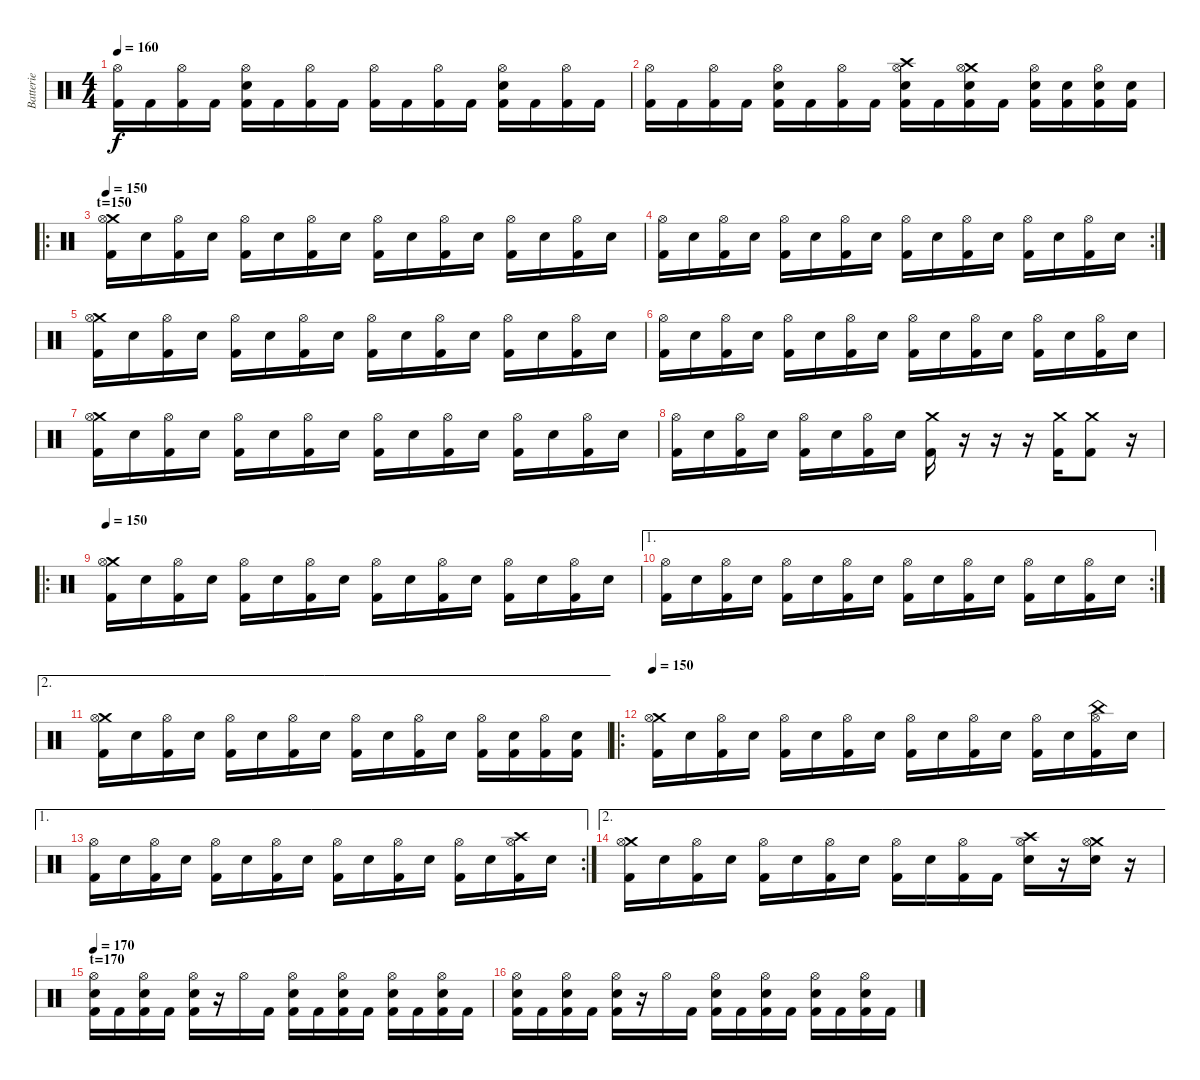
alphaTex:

\track ("Batterie" "Batterie") {instrument percussion}
\staff {score}
\articulation defaults
\ts (4 4)
\tempo 160
\clef neutral
\ks c
("Hi-Hat (open)" "Kick (hit) 2").16{dy f} "Kick (hit) 2".16 ("Hi-Hat (open)" "Kick (hit) 2").16 "Kick (hit) 2".16 ("Hi-Hat (open)" "Electric Snare (hit)" "Kick (hit) 2").16 "Kick (hit) 2".16 ("Hi-Hat (open)" "Kick (hit) 2").16 "Kick (hit) 2".16 ("Hi-Hat (open)" "Kick (hit) 2").16 "Kick (hit) 2".16 ("Hi-Hat (open)" "Kick (hit) 2").16 "Kick (hit) 2".16 ("Hi-Hat (open)" "Electric Snare (hit)" "Kick (hit) 2").16 "Kick (hit) 2".16 ("Hi-Hat (open)" "Kick (hit) 2").16 "Kick (hit) 2".16 |
("Hi-Hat (open)" "Kick (hit) 2").16 "Kick (hit) 2".16 ("Hi-Hat (open)" "Kick (hit) 2").16 "Kick (hit) 2".16 ("Hi-Hat (open)" "Electric Snare (hit)" "Kick (hit) 2").16 "Kick (hit) 2".16 ("Hi-Hat (open)" "Kick (hit) 2").16 "Kick (hit) 2".16 ("Crash high (hit)" "Hi-Hat (open)" "Electric Snare (hit)" "Kick (hit) 2").16 "Kick (hit) 2".16 ("Crash medium (hit)" "Hi-Hat (open)" "Electric Snare (hit)" "Kick (hit) 2").16 "Kick (hit) 2".16 ("Hi-Hat (open)" "Electric Snare (hit)" "Kick (hit) 2").16 ("Electric Snare (hit)" "Kick (hit) 2").16 ("Hi-Hat (open)" "Electric Snare (hit)" "Kick (hit) 2").16 ("Electric Snare (hit)" "Kick (hit) 2").16 |
\ro
\section ("" "t=150")
\tempo 150
("Crash medium (hit)" "Hi-Hat (open)" "Kick (hit) 2").16 "Electric Snare (hit)".16 ("Hi-Hat (open)" "Kick (hit) 2").16 "Electric Snare (hit)".16 ("Hi-Hat (open)" "Kick (hit) 2").16 "Electric Snare (hit)".16 ("Hi-Hat (open)" "Kick (hit) 2").16 "Electric Snare (hit)".16 ("Hi-Hat (open)" "Kick (hit) 2").16 "Electric Snare (hit)".16 ("Hi-Hat (open)" "Kick (hit) 2").16 "Electric Snare (hit)".16 ("Hi-Hat (open)" "Kick (hit) 2").16 "Electric Snare (hit)".16 ("Hi-Hat (open)" "Kick (hit) 2").16 "Electric Snare (hit)".16 |
\rc 2
("Hi-Hat (open)" "Kick (hit) 2").16 "Electric Snare (hit)".16 ("Hi-Hat (open)" "Kick (hit) 2").16 "Electric Snare (hit)".16 ("Hi-Hat (open)" "Kick (hit) 2").16 "Electric Snare (hit)".16 ("Hi-Hat (open)" "Kick (hit) 2").16 "Electric Snare (hit)".16 ("Hi-Hat (open)" "Kick (hit) 2").16 "Electric Snare (hit)".16 ("Hi-Hat (open)" "Kick (hit) 2").16 "Electric Snare (hit)".16 ("Hi-Hat (open)" "Kick (hit) 2").16 "Electric Snare (hit)".16 ("Hi-Hat (open)" "Kick (hit) 2").16 "Electric Snare (hit)".16 |
("Crash medium (hit)" "Hi-Hat (open)" "Kick (hit) 2").16 "Electric Snare (hit)".16 ("Hi-Hat (open)" "Kick (hit) 2").16 "Electric Snare (hit)".16 ("Hi-Hat (open)" "Kick (hit) 2").16 "Electric Snare (hit)".16 ("Hi-Hat (open)" "Kick (hit) 2").16 "Electric Snare (hit)".16 ("Hi-Hat (open)" "Kick (hit) 2").16 "Electric Snare (hit)".16 ("Hi-Hat (open)" "Kick (hit) 2").16 "Electric Snare (hit)".16 ("Hi-Hat (open)" "Kick (hit) 2").16 "Electric Snare (hit)".16 ("Hi-Hat (open)" "Kick (hit) 2").16 "Electric Snare (hit)".16 |
("Hi-Hat (open)" "Kick (hit) 2").16 "Electric Snare (hit)".16 ("Hi-Hat (open)" "Kick (hit) 2").16 "Electric Snare (hit)".16 ("Hi-Hat (open)" "Kick (hit) 2").16 "Electric Snare (hit)".16 ("Hi-Hat (open)" "Kick (hit) 2").16 "Electric Snare (hit)".16 ("Hi-Hat (open)" "Kick (hit) 2").16 "Electric Snare (hit)".16 ("Hi-Hat (open)" "Kick (hit) 2").16 "Electric Snare (hit)".16 ("Hi-Hat (open)" "Kick (hit) 2").16 "Electric Snare (hit)".16 ("Hi-Hat (open)" "Kick (hit) 2").16 "Electric Snare (hit)".16 |
("Crash medium (hit)" "Hi-Hat (open)" "Kick (hit) 2").16 "Electric Snare (hit)".16 ("Hi-Hat (open)" "Kick (hit) 2").16 "Electric Snare (hit)".16 ("Hi-Hat (open)" "Kick (hit) 2").16 "Electric Snare (hit)".16 ("Hi-Hat (open)" "Kick (hit) 2").16 "Electric Snare (hit)".16 ("Hi-Hat (open)" "Kick (hit) 2").16 "Electric Snare (hit)".16 ("Hi-Hat (open)" "Kick (hit) 2").16 "Electric Snare (hit)".16 ("Hi-Hat (open)" "Kick (hit) 2").16 "Electric Snare (hit)".16 ("Hi-Hat (open)" "Kick (hit) 2").16 "Electric Snare (hit)".16 |
("Hi-Hat (open)" "Kick (hit) 2").16 "Electric Snare (hit)".16 ("Hi-Hat (open)" "Kick (hit) 2").16 "Electric Snare (hit)".16 ("Hi-Hat (open)" "Kick (hit) 2").16 "Electric Snare (hit)".16 ("Hi-Hat (open)" "Kick (hit) 2").16 "Electric Snare (hit)".16 ("Crash medium (hit)" "Kick (hit) 2").16 r.16 r.16 r.16 ("Crash medium (hit)" "Kick (hit) 2").16 ("Crash medium (hit)" "Kick (hit) 2").8 r.16 |
\ro
\tempo 150
("Crash medium (hit)" "Hi-Hat (open)" "Kick (hit) 2").16 "Electric Snare (hit)".16 ("Hi-Hat (open)" "Kick (hit) 2").16 "Electric Snare (hit)".16 ("Hi-Hat (open)" "Kick (hit) 2").16 "Electric Snare (hit)".16 ("Hi-Hat (open)" "Kick (hit) 2").16 "Electric Snare (hit)".16 ("Hi-Hat (open)" "Kick (hit) 2").16 "Electric Snare (hit)".16 ("Hi-Hat (open)" "Kick (hit) 2").16 "Electric Snare (hit)".16 ("Hi-Hat (open)" "Kick (hit) 2").16 "Electric Snare (hit)".16 ("Hi-Hat (open)" "Kick (hit) 2").16 "Electric Snare (hit)".16 |
\ae 1
\rc 2
("Hi-Hat (open)" "Kick (hit) 2").16 "Electric Snare (hit)".16 ("Hi-Hat (open)" "Kick (hit) 2").16 "Electric Snare (hit)".16 ("Hi-Hat (open)" "Kick (hit) 2").16 "Electric Snare (hit)".16 ("Hi-Hat (open)" "Kick (hit) 2").16 "Electric Snare (hit)".16 ("Hi-Hat (open)" "Kick (hit) 2").16 "Electric Snare (hit)".16 ("Hi-Hat (open)" "Kick (hit) 2").16 "Electric Snare (hit)".16 ("Hi-Hat (open)" "Kick (hit) 2").16 "Electric Snare (hit)".16 ("Hi-Hat (open)" "Kick (hit) 2").16 "Electric Snare (hit)".16 |
\ae 2
("Crash medium (hit)" "Hi-Hat (open)" "Kick (hit) 2").16 "Electric Snare (hit)".16 ("Hi-Hat (open)" "Kick (hit) 2").16 "Electric Snare (hit)".16 ("Hi-Hat (open)" "Kick (hit) 2").16 "Electric Snare (hit)".16 ("Hi-Hat (open)" "Kick (hit) 2").16 "Electric Snare (hit)".16 ("Hi-Hat (open)" "Kick (hit) 2").16 "Electric Snare (hit)".16 ("Hi-Hat (open)" "Kick (hit) 2").16 "Electric Snare (hit)".16 ("Hi-Hat (open)" "Kick (hit) 2").16 ("Kick (hit) 2" "Electric Snare (hit)").16 ("Hi-Hat (open)" "Kick (hit) 2").16 ("Kick (hit) 2" "Electric Snare (hit)").16 |
\ro
\tempo 150
("Crash medium (hit)" "Hi-Hat (open)" "Kick (hit) 2").16 "Electric Snare (hit)".16 ("Hi-Hat (open)" "Kick (hit) 2").16 "Electric Snare (hit)".16 ("Hi-Hat (open)" "Kick (hit) 2").16 "Electric Snare (hit)".16 ("Hi-Hat (open)" "Kick (hit) 2").16 "Electric Snare (hit)".16 ("Hi-Hat (open)" "Kick (hit) 2").16 "Electric Snare (hit)".16 ("Hi-Hat (open)" "Kick (hit) 2").16 "Electric Snare (hit)".16 ("Hi-Hat (open)" "Kick (hit) 2").16 "Electric Snare (hit)".16 ("China (hit)" "Hi-Hat (open)" "Kick (hit) 2").16 "Electric Snare (hit)".16 |
\ae 1
\rc 2
("Hi-Hat (open)" "Kick (hit) 2").16 "Electric Snare (hit)".16 ("Hi-Hat (open)" "Kick (hit) 2").16 "Electric Snare (hit)".16 ("Hi-Hat (open)" "Kick (hit) 2").16 "Electric Snare (hit)".16 ("Hi-Hat (open)" "Kick (hit) 2").16 "Electric Snare (hit)".16 ("Hi-Hat (open)" "Kick (hit) 2").16 "Electric Snare (hit)".16 ("Hi-Hat (open)" "Kick (hit) 2").16 "Electric Snare (hit)".16 ("Hi-Hat (open)" "Kick (hit) 2").16 "Electric Snare (hit)".16 ("Crash high (hit)" "Hi-Hat (open)" "Kick (hit) 2").16 "Electric Snare (hit)".16 |
\ae 2
("Crash medium (hit)" "Hi-Hat (open)" "Kick (hit) 2").16 "Electric Snare (hit)".16 ("Hi-Hat (open)" "Kick (hit) 2").16 "Electric Snare (hit)".16 ("Hi-Hat (open)" "Kick (hit) 2").16 "Electric Snare (hit)".16 ("Hi-Hat (open)" "Kick (hit) 2").16 "Electric Snare (hit)".16 ("Hi-Hat (open)" "Kick (hit) 2").16 "Electric Snare (hit)".16 ("Hi-Hat (open)" "Kick (hit) 2").16 "Kick (hit) 2".16 ("Crash high (hit)" "Hi-Hat (open)" "Electric Snare (hit)").16 r.16 ("Crash medium (hit)" "Hi-Hat (open)" "Electric Snare (hit)").16 r.16 |
\section ("" "t=170")
\tempo 170
("Hi-Hat (open)" "Electric Snare (hit)" "Kick (hit) 2").16 "Kick (hit) 2".16 ("Hi-Hat (open)" "Electric Snare (hit)" "Kick (hit) 2").16 "Kick (hit) 2".16 ("Hi-Hat (open)" "Electric Snare (hit)" "Kick (hit) 2").16 r.16 "Hi-Hat (open)".16 "Kick (hit) 2".16 ("Hi-Hat (open)" "Electric Snare (hit)" "Kick (hit) 2").16 "Kick (hit) 2".16 ("Hi-Hat (open)" "Electric Snare (hit)" "Kick (hit) 2").16 "Kick (hit) 2".16 ("Hi-Hat (open)" "Electric Snare (hit)" "Kick (hit) 2").16 "Kick (hit) 2".16 ("Hi-Hat (open)" "Electric Snare (hit)" "Kick (hit) 2").16 "Kick (hit) 2".16 |
("Hi-Hat (open)" "Electric Snare (hit)" "Kick (hit) 2").16 "Kick (hit) 2".16 ("Hi-Hat (open)" "Electric Snare (hit)" "Kick (hit) 2").16 "Kick (hit) 2".16 ("Hi-Hat (open)" "Electric Snare (hit)" "Kick (hit) 2").16 r.16 "Hi-Hat (open)".16 "Kick (hit) 2".16 ("Hi-Hat (open)" "Electric Snare (hit)" "Kick (hit) 2").16 "Kick (hit) 2".16 ("Hi-Hat (open)" "Electric Snare (hit)" "Kick (hit) 2").16 "Kick (hit) 2".16 ("Hi-Hat (open)" "Electric Snare (hit)" "Kick (hit) 2").16 "Kick (hit) 2".16 ("Hi-Hat (open)" "Electric Snare (hit)" "Kick (hit) 2").16 "Kick (hit) 2".16
